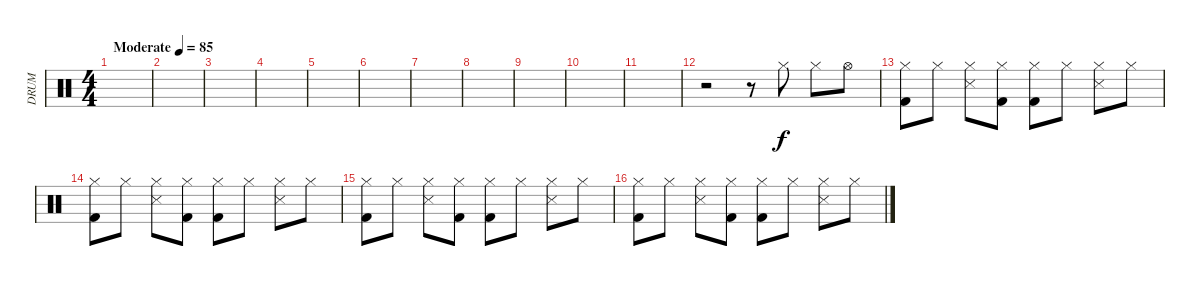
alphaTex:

\track ("DRUM" "DRUM") {instrument percussion}
\staff {score}
\articulation defaults
\ts (4 4)
\tempo (85 "Moderate")
\clef neutral
\ks c
|
|
|
|
|
|
|
|
|
|
|
r.2 r.8 "Hi-Hat (closed)".8 "Hi-Hat (closed)".8 "Hi-Hat (open)".8 |
("Kick (hit) 2" "Hi-Hat (closed)").8 "Hi-Hat (closed)".8 ("Snare (side stick) 3" "Hi-Hat (closed)").8 ("Kick (hit) 2" "Hi-Hat (closed)").8 ("Kick (hit) 2" "Hi-Hat (closed)").8 "Hi-Hat (closed)".8 ("Snare (side stick) 3" "Hi-Hat (closed)").8 "Hi-Hat (closed)".8 |
("Kick (hit) 2" "Hi-Hat (closed)").8 "Hi-Hat (closed)".8 ("Snare (side stick) 3" "Hi-Hat (closed)").8 ("Kick (hit) 2" "Hi-Hat (closed)").8 ("Kick (hit) 2" "Hi-Hat (closed)").8 "Hi-Hat (closed)".8 ("Snare (side stick) 3" "Hi-Hat (closed)").8 "Hi-Hat (closed)".8 |
("Kick (hit) 2" "Hi-Hat (closed)").8 "Hi-Hat (closed)".8 ("Snare (side stick) 3" "Hi-Hat (closed)").8 ("Kick (hit) 2" "Hi-Hat (closed)").8 ("Kick (hit) 2" "Hi-Hat (closed)").8 "Hi-Hat (closed)".8 ("Snare (side stick) 3" "Hi-Hat (closed)").8 "Hi-Hat (closed)".8 |
("Kick (hit) 2" "Hi-Hat (closed)").8 "Hi-Hat (closed)".8 ("Snare (side stick) 3" "Hi-Hat (closed)").8 ("Kick (hit) 2" "Hi-Hat (closed)").8 ("Kick (hit) 2" "Hi-Hat (closed)").8 "Hi-Hat (closed)".8 ("Snare (side stick) 3" "Hi-Hat (closed)").8 "Hi-Hat (closed)".8
